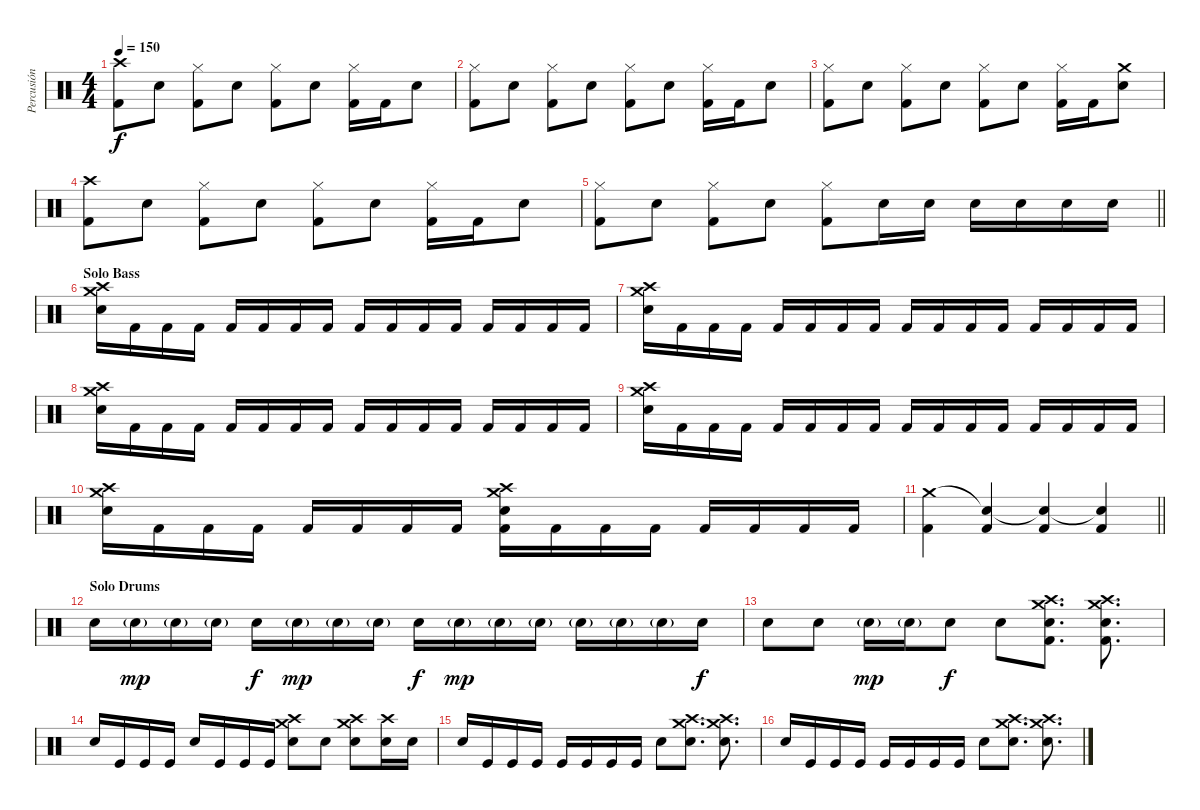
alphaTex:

\track ("Percusión" "Percusión") {instrument percussion}
\staff {score}
\articulation defaults
\ts (4 4)
\tempo 150
\clef neutral
\ks c
("Crash high (hit)" "Kick (hit) 2").8{dy f} "Snare (hit) 2".8 ("Hi-Hat (closed)" "Kick (hit) 2").8 "Snare (hit) 2".8 ("Hi-Hat (closed)" "Kick (hit) 2").8 "Snare (hit) 2".8 ("Hi-Hat (closed)" "Kick (hit) 2").16 "Kick (hit) 2".16 "Snare (hit) 2".8 |
("Hi-Hat (closed)" "Kick (hit) 2").8 "Snare (hit) 2".8 ("Hi-Hat (closed)" "Kick (hit) 2").8 "Snare (hit) 2".8 ("Hi-Hat (closed)" "Kick (hit) 2").8 "Snare (hit) 2".8 ("Hi-Hat (closed)" "Kick (hit) 2").16 "Kick (hit) 2".16 "Snare (hit) 2".8 |
("Hi-Hat (closed)" "Kick (hit) 2").8 "Snare (hit) 2".8 ("Hi-Hat (closed)" "Kick (hit) 2").8 "Snare (hit) 2".8 ("Hi-Hat (closed)" "Kick (hit) 2").8 "Snare (hit) 2".8 ("Hi-Hat (closed)" "Kick (hit) 2").16 "Kick (hit) 2".16 ("Crash medium (hit)" "Snare (hit) 2").8 |
("Crash high (hit)" "Kick (hit) 2").8 "Snare (hit) 2".8 ("Hi-Hat (closed)" "Kick (hit) 2").8 "Snare (hit) 2".8 ("Hi-Hat (closed)" "Kick (hit) 2").8 "Snare (hit) 2".8 ("Hi-Hat (closed)" "Kick (hit) 2").16 "Kick (hit) 2".16 "Snare (hit) 2".8 |
\barLineRight lightlight
("Hi-Hat (closed)" "Kick (hit) 2").8 "Snare (hit) 2".8 ("Hi-Hat (closed)" "Kick (hit) 2").8 "Snare (hit) 2".8 ("Hi-Hat (closed)" "Kick (hit) 2").8 "Snare (hit) 2".16 "Snare (hit) 2".16 "Snare (hit) 2".16 "Snare (hit) 2".16 "Snare (hit) 2".16 "Snare (hit) 2".16 |
\section ("" "Solo Bass")
("Crash medium (hit)" "Crash high (hit)" "Snare (hit) 2").16 "Kick (hit) 2".16 "Kick (hit) 2".16 "Kick (hit) 2".16 "Kick (hit) 2".16 "Kick (hit) 2".16 "Kick (hit) 2".16 "Kick (hit) 2".16 "Kick (hit) 2".16 "Kick (hit) 2".16 "Kick (hit) 2".16 "Kick (hit) 2".16 "Kick (hit) 2".16 "Kick (hit) 2".16 "Kick (hit) 2".16 "Kick (hit) 2".16 |
("Crash medium (hit)" "Crash high (hit)" "Snare (hit) 2").16 "Kick (hit) 2".16 "Kick (hit) 2".16 "Kick (hit) 2".16 "Kick (hit) 2".16 "Kick (hit) 2".16 "Kick (hit) 2".16 "Kick (hit) 2".16 "Kick (hit) 2".16 "Kick (hit) 2".16 "Kick (hit) 2".16 "Kick (hit) 2".16 "Kick (hit) 2".16 "Kick (hit) 2".16 "Kick (hit) 2".16 "Kick (hit) 2".16 |
("Crash medium (hit)" "Crash high (hit)" "Snare (hit) 2").16 "Kick (hit) 2".16 "Kick (hit) 2".16 "Kick (hit) 2".16 "Kick (hit) 2".16 "Kick (hit) 2".16 "Kick (hit) 2".16 "Kick (hit) 2".16 "Kick (hit) 2".16 "Kick (hit) 2".16 "Kick (hit) 2".16 "Kick (hit) 2".16 "Kick (hit) 2".16 "Kick (hit) 2".16 "Kick (hit) 2".16 "Kick (hit) 2".16 |
("Crash medium (hit)" "Crash high (hit)" "Snare (hit) 2").16 "Kick (hit) 2".16 "Kick (hit) 2".16 "Kick (hit) 2".16 "Kick (hit) 2".16 "Kick (hit) 2".16 "Kick (hit) 2".16 "Kick (hit) 2".16 "Kick (hit) 2".16 "Kick (hit) 2".16 "Kick (hit) 2".16 "Kick (hit) 2".16 "Kick (hit) 2".16 "Kick (hit) 2".16 "Kick (hit) 2".16 "Kick (hit) 2".16 |
("Crash medium (hit)" "Crash high (hit)" "Snare (hit) 2").16 "Kick (hit) 2".16 "Kick (hit) 2".16 "Kick (hit) 2".16 "Kick (hit) 2".16 "Kick (hit) 2".16 "Kick (hit) 2".16 "Kick (hit) 2".16 ("Crash medium (hit)" "Crash high (hit)" "Snare (hit) 2" "Kick (hit) 2").16 "Kick (hit) 2".16 "Kick (hit) 2".16 "Kick (hit) 2".16 "Kick (hit) 2".16 "Kick (hit) 2".16 "Kick (hit) 2".16 "Kick (hit) 2".16 |
\barLineRight lightlight
("Crash medium (hit)" "Kick (hit) 2").4 ("Snare (hit)"{t} "Kick (hit) 2").4 ("Snare (hit)"{t} "Kick (hit) 2").4 ("Snare (hit)"{t} "Kick (hit) 2").4 |
\section ("" "Solo Drums")
"Snare (hit) 2".16 "Snare (hit) 2"{g}.16{dy mp} "Snare (hit) 2"{g}.16 "Snare (hit) 2"{g}.16 "Snare (hit) 2".16{dy f} "Snare (hit) 2"{g}.16{dy mp} "Snare (hit) 2"{g}.16 "Snare (hit) 2"{g}.16 "Snare (hit) 2".16{dy f} "Snare (hit) 2"{g}.16{dy mp} "Snare (hit) 2"{g}.16 "Snare (hit) 2"{g}.16 "Snare (hit) 2"{g}.16 "Snare (hit) 2"{g}.16 "Snare (hit) 2"{g}.16 "Snare (hit) 2".16{dy f} |
"Snare (hit) 2".8 "Snare (hit) 2".8 "Snare (hit) 2"{g}.16{dy mp} "Snare (hit) 2"{g}.16 "Snare (hit) 2".8{dy f} "Snare (hit) 2".8 ("Crash medium (hit)" "Crash high (hit)" "Snare (hit) 2" "Kick (hit) 2").8{d} ("Crash medium (hit)" "Crash high (hit)" "Snare (hit) 2" "Kick (hit) 2").8{d} |
"Snare (hit) 2".16 "Kick (hit)".16 "Kick (hit)".16 "Kick (hit)".16 "Snare (hit) 2".16 "Kick (hit)".16 "Kick (hit)".16 "Kick (hit)".16 ("Crash medium (hit)" "Crash high (hit)" "Snare (hit) 2").8 "Snare (hit) 2".8 ("Crash medium (hit)" "Crash high (hit)" "Snare (hit) 2").8 ("Crash high (hit)" "Snare (hit) 2").16 "Snare (hit) 2".16 |
"Snare (hit) 2".16 "Kick (hit)".16 "Kick (hit)".16 "Kick (hit)".16 "Kick (hit)".16 "Kick (hit)".16 "Kick (hit)".16 "Kick (hit)".16 "Snare (hit) 2".8 ("Crash medium (hit)" "Crash high (hit)" "Snare (hit) 2").8{d} ("Crash medium (hit)" "Crash high (hit)" "Snare (hit) 2").8{d} |
"Snare (hit) 2".16 "Kick (hit)".16 "Kick (hit)".16 "Kick (hit)".16 "Kick (hit)".16 "Kick (hit)".16 "Kick (hit)".16 "Kick (hit)".16 "Snare (hit) 2".8 ("Crash medium (hit)" "Crash high (hit)" "Snare (hit) 2").8{d} ("Crash medium (hit)" "Crash high (hit)" "Snare (hit) 2").8{d}
